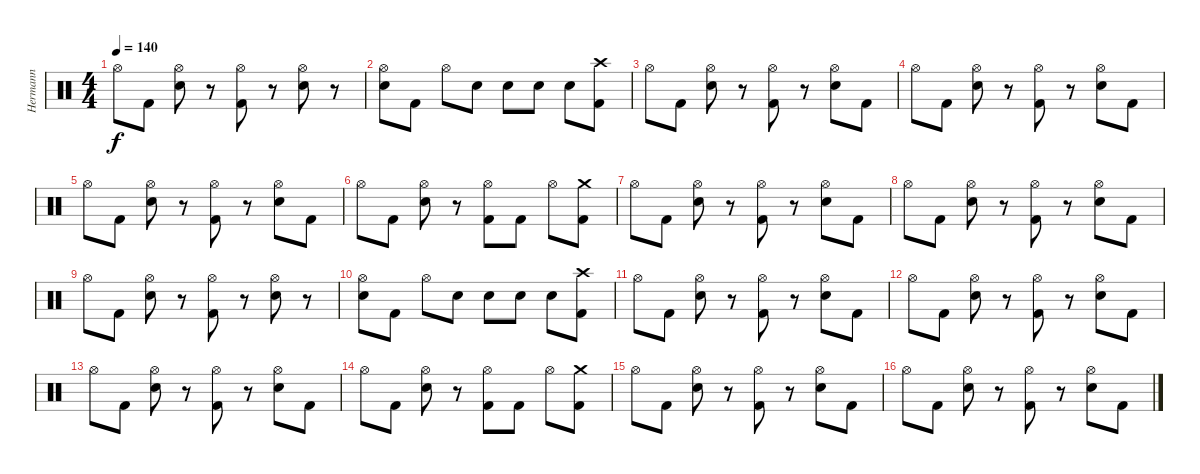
\track ("Hermann" "Hermann") {instrument percussion}
\staff {score}
\articulation defaults
\ts (4 4)
\tempo 140
\clef neutral
\ks c "Hi-Hat (open)".8{dy f} "Kick (hit) 2".8
("Hi-Hat (open)" "Electric Snare (hit)").8 r.8 ("Hi-Hat (open)" "Kick (hit) 2").8 r.8 ("Hi-Hat (open)" "Electric Snare (hit)").8 r.8 |
("Hi-Hat (open)" "Electric Snare (hit)").8 "Kick (hit) 2".8 "Hi-Hat (open)".8 "Electric Snare (hit)".8 "Electric Snare (hit)".8 "Electric Snare (hit)".8 "Electric Snare (hit)".8 ("Crash high (hit)" "Kick (hit) 2").8 |
"Hi-Hat (open)".8 "Kick (hit) 2".8 ("Hi-Hat (open)" "Electric Snare (hit)").8 r.8 ("Hi-Hat (open)" "Kick (hit) 2").8 r.8 ("Hi-Hat (open)" "Electric Snare (hit)").8 "Kick (hit) 2".8 |
"Hi-Hat (open)".8 "Kick (hit) 2".8 ("Hi-Hat (open)" "Electric Snare (hit)").8 r.8 ("Hi-Hat (open)" "Kick (hit) 2").8 r.8 ("Hi-Hat (open)" "Electric Snare (hit)").8 "Kick (hit) 2".8 |
"Hi-Hat (open)".8 "Kick (hit) 2".8 ("Hi-Hat (open)" "Electric Snare (hit)").8 r.8 ("Hi-Hat (open)" "Kick (hit) 2").8 r.8 ("Hi-Hat (open)" "Electric Snare (hit)").8 "Kick (hit) 2".8 |
"Hi-Hat (open)".8 "Kick (hit) 2".8 ("Hi-Hat (open)" "Electric Snare (hit)").8 r.8 ("Hi-Hat (open)" "Kick (hit) 2").8 "Kick (hit) 2".8 "Hi-Hat (open)".8 ("Crash medium (hit)" "Kick (hit) 2").8 |
"Hi-Hat (open)".8 "Kick (hit) 2".8 ("Hi-Hat (open)" "Electric Snare (hit)").8 r.8 ("Hi-Hat (open)" "Kick (hit) 2").8 r.8 ("Hi-Hat (open)" "Electric Snare (hit)").8 "Kick (hit) 2".8 |
"Hi-Hat (open)".8 "Kick (hit) 2".8 ("Hi-Hat (open)" "Electric Snare (hit)").8 r.8 ("Hi-Hat (open)" "Kick (hit) 2").8 r.8 ("Hi-Hat (open)" "Electric Snare (hit)").8 "Kick (hit) 2".8 |
"Hi-Hat (open)".8 "Kick (hit) 2".8 ("Hi-Hat (open)" "Electric Snare (hit)").8 r.8 ("Hi-Hat (open)" "Kick (hit) 2").8 r.8 ("Hi-Hat (open)" "Electric Snare (hit)").8 r.8 |
("Hi-Hat (open)" "Electric Snare (hit)").8 "Kick (hit) 2".8 "Hi-Hat (open)".8 "Electric Snare (hit)".8 "Electric Snare (hit)".8 "Electric Snare (hit)".8 "Electric Snare (hit)".8 ("Crash high (hit)" "Kick (hit) 2").8 |
"Hi-Hat (open)".8 "Kick (hit) 2".8 ("Hi-Hat (open)" "Electric Snare (hit)").8 r.8 ("Hi-Hat (open)" "Kick (hit) 2").8 r.8 ("Hi-Hat (open)" "Electric Snare (hit)").8 "Kick (hit) 2".8 |
"Hi-Hat (open)".8 "Kick (hit) 2".8 ("Hi-Hat (open)" "Electric Snare (hit)").8 r.8 ("Hi-Hat (open)" "Kick (hit) 2").8 r.8 ("Hi-Hat (open)" "Electric Snare (hit)").8 "Kick (hit) 2".8 |
"Hi-Hat (open)".8 "Kick (hit) 2".8 ("Hi-Hat (open)" "Electric Snare (hit)").8 r.8 ("Hi-Hat (open)" "Kick (hit) 2").8 r.8 ("Hi-Hat (open)" "Electric Snare (hit)").8 "Kick (hit) 2".8 |
"Hi-Hat (open)".8 "Kick (hit) 2".8 ("Hi-Hat (open)" "Electric Snare (hit)").8 r.8 ("Hi-Hat (open)" "Kick (hit) 2").8 "Kick (hit) 2".8 "Hi-Hat (open)".8 ("Crash medium (hit)" "Kick (hit) 2").8 |
"Hi-Hat (open)".8 "Kick (hit) 2".8 ("Hi-Hat (open)" "Electric Snare (hit)").8 r.8 ("Hi-Hat (open)" "Kick (hit) 2").8 r.8 ("Hi-Hat (open)" "Electric Snare (hit)").8 "Kick (hit) 2".8 |
"Hi-Hat (open)".8 "Kick (hit) 2".8 ("Hi-Hat (open)" "Electric Snare (hit)").8 r.8 ("Hi-Hat (open)" "Kick (hit) 2").8 r.8 ("Hi-Hat (open)" "Electric Snare (hit)").8 "Kick (hit) 2".8
